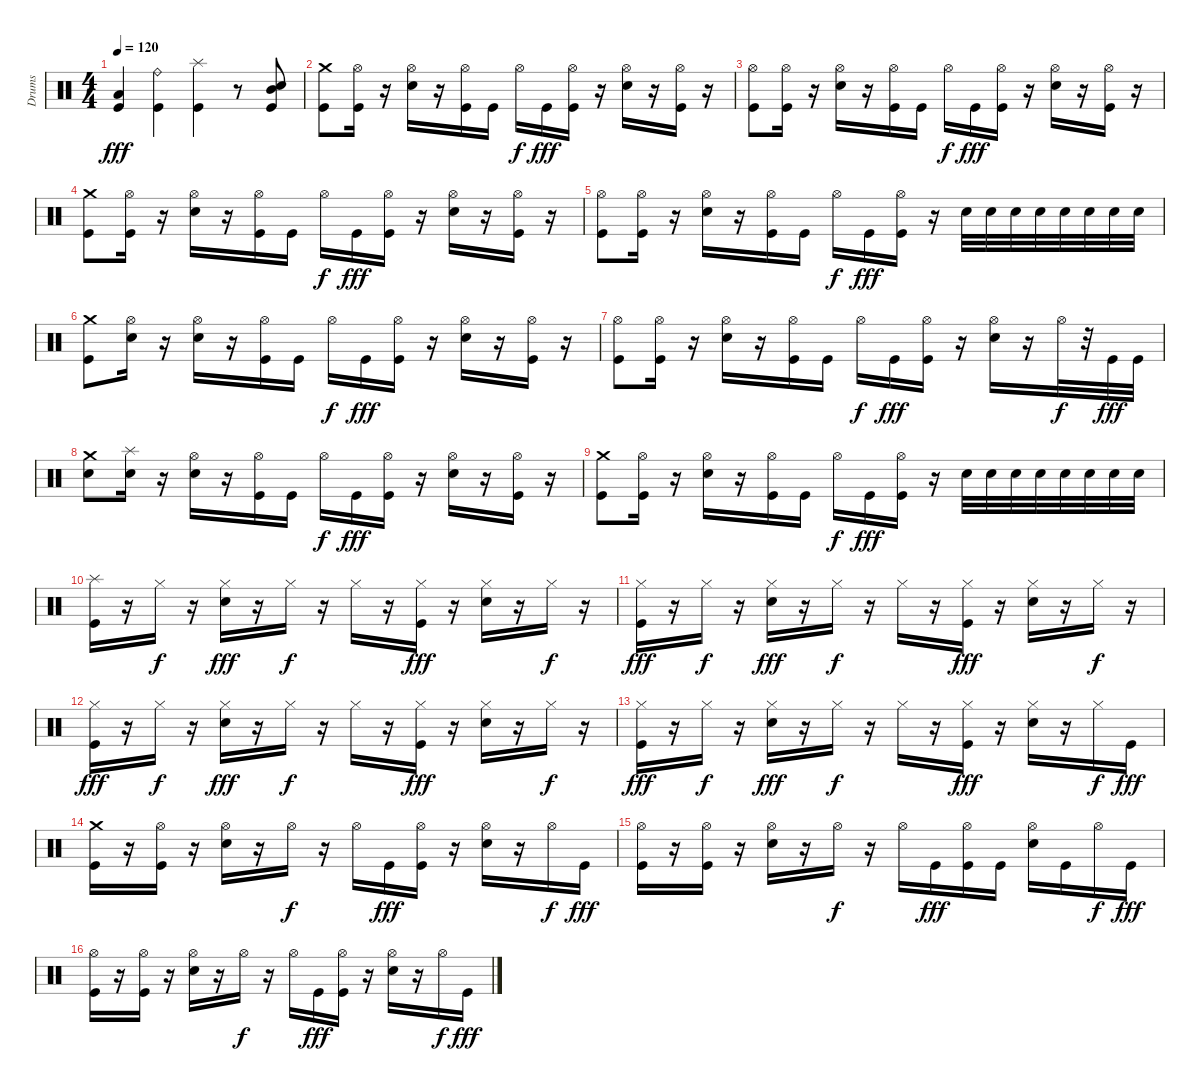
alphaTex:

\track ("Drums" "Drums") {instrument percussion}
\staff {score}
\articulation defaults
\ts (4 4)
\tempo 120
\clef neutral
\ks c
("Low Tom (hit)" "Kick (hit)").4{dy fff} ("Ride (bell)" "Kick (hit)").4 ("Splash (hit)" "Kick (hit)").4 r.8 ("Kick (hit)" "Mid Tom (hit)" "Electric Snare (hit)").8 |
("Kick (hit)" "Crash medium (hit)").8 ("Kick (hit)" "Hi-Hat (open)").16 r.16 ("Electric Snare (hit)" "Hi-Hat (open)").16 r.16 ("Kick (hit)" "Hi-Hat (open)").16 "Kick (hit)".16 "Hi-Hat (open)".16{dy f} "Kick (hit)".16{dy fff} ("Kick (hit)" "Hi-Hat (open)").16 r.16 ("Electric Snare (hit)" "Hi-Hat (open)").16 r.16 ("Kick (hit)" "Hi-Hat (open)").16 r.16 |
("Kick (hit)" "Hi-Hat (open)").8 ("Kick (hit)" "Hi-Hat (open)").16 r.16 ("Electric Snare (hit)" "Hi-Hat (open)").16 r.16 ("Kick (hit)" "Hi-Hat (open)").16 "Kick (hit)".16 "Hi-Hat (open)".16{dy f} "Kick (hit)".16{dy fff} ("Kick (hit)" "Hi-Hat (open)").16 r.16 ("Electric Snare (hit)" "Hi-Hat (open)").16 r.16 ("Kick (hit)" "Hi-Hat (open)").16 r.16 |
("Kick (hit)" "Crash medium (hit)").8 ("Kick (hit)" "Hi-Hat (open)").16 r.16 ("Electric Snare (hit)" "Hi-Hat (open)").16 r.16 ("Kick (hit)" "Hi-Hat (open)").16 "Kick (hit)".16 "Hi-Hat (open)".16{dy f} "Kick (hit)".16{dy fff} ("Kick (hit)" "Hi-Hat (open)").16 r.16 ("Electric Snare (hit)" "Hi-Hat (open)").16 r.16 ("Kick (hit)" "Hi-Hat (open)").16 r.16 |
("Kick (hit)" "Hi-Hat (open)").8 ("Kick (hit)" "Hi-Hat (open)").16 r.16 ("Electric Snare (hit)" "Hi-Hat (open)").16 r.16 ("Kick (hit)" "Hi-Hat (open)").16 "Kick (hit)".16 "Hi-Hat (open)".16{dy f} "Kick (hit)".16{dy fff} ("Kick (hit)" "Hi-Hat (open)").16 r.16 "Electric Snare (hit)".32 "Electric Snare (hit)".32 "Electric Snare (hit)".32 "Electric Snare (hit)".32 "Electric Snare (hit)".32 "Electric Snare (hit)".32 "Electric Snare (hit)".32 "Electric Snare (hit)".32 |
("Crash medium (hit)" "Kick (hit)").8 ("Electric Snare (hit)" "Hi-Hat (open)").16 r.16 ("Electric Snare (hit)" "Hi-Hat (open)").16 r.16 ("Kick (hit)" "Hi-Hat (open)").16 "Kick (hit)".16 "Hi-Hat (open)".16{dy f} "Kick (hit)".16{dy fff} ("Kick (hit)" "Hi-Hat (open)").16 r.16 ("Electric Snare (hit)" "Hi-Hat (open)").16 r.16 ("Kick (hit)" "Hi-Hat (open)").16 r.16 |
("Kick (hit)" "Hi-Hat (open)").8 ("Kick (hit)" "Hi-Hat (open)").16 r.16 ("Electric Snare (hit)" "Hi-Hat (open)").16 r.16 ("Kick (hit)" "Hi-Hat (open)").16 "Kick (hit)".16 "Hi-Hat (open)".16{dy f} "Kick (hit)".16{dy fff} ("Kick (hit)" "Hi-Hat (open)").16 r.16 ("Electric Snare (hit)" "Hi-Hat (open)").16 r.16 "Hi-Hat (open)".32{dy f} r.32 "Kick (hit)".32{dy fff} "Kick (hit)".32 |
("Electric Snare (hit)" "Crash medium (hit)").8 ("Electric Snare (hit)" "Splash (hit)").16 r.16 ("Electric Snare (hit)" "Hi-Hat (open)").16 r.16 ("Kick (hit)" "Hi-Hat (open)").16 "Kick (hit)".16 "Hi-Hat (open)".16{dy f} "Kick (hit)".16{dy fff} ("Kick (hit)" "Hi-Hat (open)").16 r.16 ("Electric Snare (hit)" "Hi-Hat (open)").16 r.16 ("Kick (hit)" "Hi-Hat (open)").16 r.16 |
("Kick (hit)" "Crash medium (hit)").8 ("Kick (hit)" "Hi-Hat (open)").16 r.16 ("Electric Snare (hit)" "Hi-Hat (open)").16 r.16 ("Kick (hit)" "Hi-Hat (open)").16 "Kick (hit)".16 "Hi-Hat (open)".16{dy f} "Kick (hit)".16{dy fff} ("Kick (hit)" "Hi-Hat (open)").16 r.16 "Electric Snare (hit)".32 "Electric Snare (hit)".32 "Electric Snare (hit)".32 "Electric Snare (hit)".32 "Electric Snare (hit)".32 "Electric Snare (hit)".32 "Electric Snare (hit)".32 "Electric Snare (hit)".32 |
("Splash (hit)" "Kick (hit)").16 r.16 "Hi-Hat (closed)".16{dy f} r.16 ("Hi-Hat (closed)" "Electric Snare (hit)").16{dy fff} r.16 "Hi-Hat (closed)".16{dy f} r.16 "Hi-Hat (closed)".16 r.16 ("Hi-Hat (closed)" "Kick (hit)").16{dy fff} r.16 ("Hi-Hat (closed)" "Electric Snare (hit)").16 r.16 "Hi-Hat (closed)".16{dy f} r.16 |
("Hi-Hat (closed)" "Kick (hit)").16{dy fff} r.16 "Hi-Hat (closed)".16{dy f} r.16 ("Hi-Hat (closed)" "Electric Snare (hit)").16{dy fff} r.16 "Hi-Hat (closed)".16{dy f} r.16 "Hi-Hat (closed)".16 r.16 ("Hi-Hat (closed)" "Kick (hit)").16{dy fff} r.16 ("Hi-Hat (closed)" "Electric Snare (hit)").16 r.16 "Hi-Hat (closed)".16{dy f} r.16 |
("Hi-Hat (closed)" "Kick (hit)").16{dy fff} r.16 "Hi-Hat (closed)".16{dy f} r.16 ("Hi-Hat (closed)" "Electric Snare (hit)").16{dy fff} r.16 "Hi-Hat (closed)".16{dy f} r.16 "Hi-Hat (closed)".16 r.16 ("Hi-Hat (closed)" "Kick (hit)").16{dy fff} r.16 ("Hi-Hat (closed)" "Electric Snare (hit)").16 r.16 "Hi-Hat (closed)".16{dy f} r.16 |
("Hi-Hat (closed)" "Kick (hit)").16{dy fff} r.16 "Hi-Hat (closed)".16{dy f} r.16 ("Hi-Hat (closed)" "Electric Snare (hit)").16{dy fff} r.16 "Hi-Hat (closed)".16{dy f} r.16 "Hi-Hat (closed)".16 r.16 ("Hi-Hat (closed)" "Kick (hit)").16{dy fff} r.16 ("Hi-Hat (closed)" "Electric Snare (hit)").16 r.16 "Hi-Hat (closed)".16{dy f} "Kick (hit)".16{dy fff} |
("Crash medium (hit)" "Kick (hit)").16 r.16 ("Hi-Hat (open)" "Kick (hit)").16 r.16 ("Hi-Hat (open)" "Electric Snare (hit)").16 r.16 "Hi-Hat (open)".16{dy f} r.16 "Hi-Hat (open)".16 "Kick (hit)".16{dy fff} ("Hi-Hat (open)" "Kick (hit)").16 r.16 ("Hi-Hat (open)" "Electric Snare (hit)").16 r.16 "Hi-Hat (open)".16{dy f} "Kick (hit)".16{dy fff} |
("Hi-Hat (open)" "Kick (hit)").16 r.16 ("Hi-Hat (open)" "Kick (hit)").16 r.16 ("Hi-Hat (open)" "Electric Snare (hit)").16 r.16 "Hi-Hat (open)".16{dy f} r.16 "Hi-Hat (open)".16 "Kick (hit)".16{dy fff} ("Hi-Hat (open)" "Kick (hit)").16 "Kick (hit)".16 ("Hi-Hat (open)" "Electric Snare (hit)").16 "Kick (hit)".16 "Hi-Hat (open)".16{dy f} "Kick (hit)".16{dy fff} |
("Hi-Hat (open)" "Kick (hit)").16 r.16 ("Hi-Hat (open)" "Kick (hit)").16 r.16 ("Hi-Hat (open)" "Electric Snare (hit)").16 r.16 "Hi-Hat (open)".16{dy f} r.16 "Hi-Hat (open)".16 "Kick (hit)".16{dy fff} ("Hi-Hat (open)" "Kick (hit)").16 r.16 ("Hi-Hat (open)" "Electric Snare (hit)").16 r.16 "Hi-Hat (open)".16{dy f} "Kick (hit)".16{dy fff}
